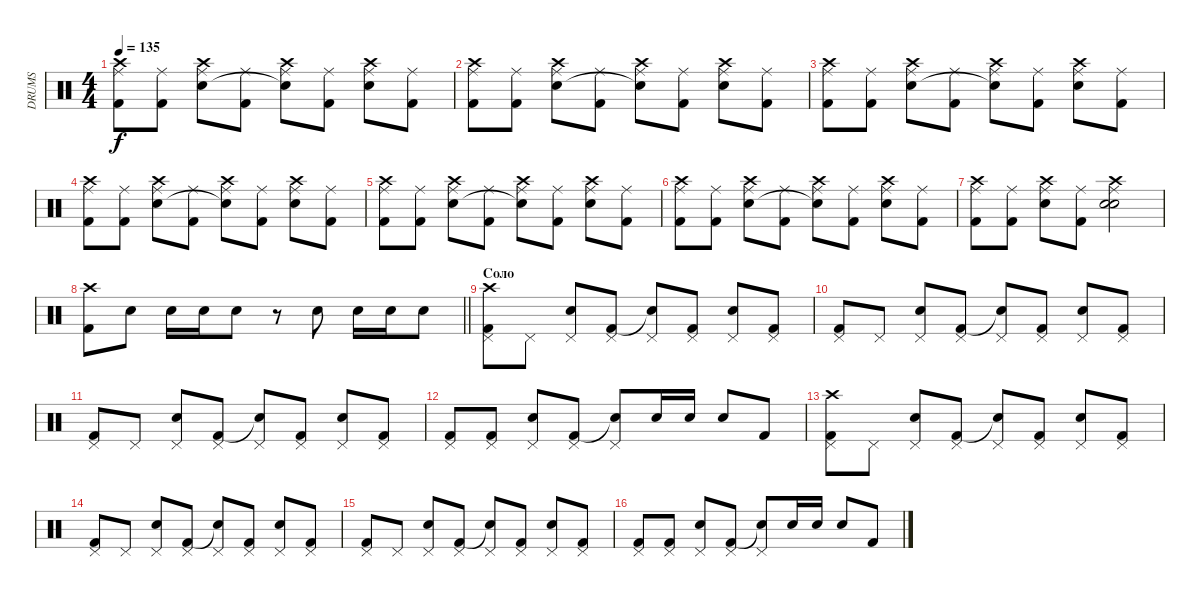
\track ("DRUMS" "DRUMS") {instrument percussion}
\staff {score}
\articulation defaults
\ts (4 4)
\tempo 135
\clef neutral
\ks c
("Crash high (hit)" "Ride (middle)" "Kick (hit) 2").8{dy f} ("Ride (middle)" "Kick (hit) 2").8 ("Crash high (hit)" "Ride (middle)" "Snare (hit) 2").8 ("Ride (middle)" "Kick (hit) 2").8 ("Crash high (hit)" "Ride (middle)" "Snare (hit)"{t}).8 ("Ride (middle)" "Kick (hit) 2").8 ("Crash high (hit)" "Ride (middle)" "Snare (hit) 2").8 ("Ride (middle)" "Kick (hit) 2").8 |
("Crash high (hit)" "Ride (middle)" "Kick (hit) 2").8 ("Ride (middle)" "Kick (hit) 2").8 ("Crash high (hit)" "Ride (middle)" "Snare (hit) 2").8 ("Ride (middle)" "Kick (hit) 2").8 ("Crash high (hit)" "Ride (middle)" "Snare (hit)"{t}).8 ("Ride (middle)" "Kick (hit) 2").8 ("Crash high (hit)" "Ride (middle)" "Snare (hit) 2").8 ("Ride (middle)" "Kick (hit) 2").8 |
("Crash high (hit)" "Ride (middle)" "Kick (hit) 2").8 ("Ride (middle)" "Kick (hit) 2").8 ("Crash high (hit)" "Ride (middle)" "Snare (hit) 2").8 ("Ride (middle)" "Kick (hit) 2").8 ("Crash high (hit)" "Ride (middle)" "Snare (hit)"{t}).8 ("Ride (middle)" "Kick (hit) 2").8 ("Crash high (hit)" "Ride (middle)" "Snare (hit) 2").8 ("Ride (middle)" "Kick (hit) 2").8 |
("Crash high (hit)" "Ride (middle)" "Kick (hit) 2").8 ("Ride (middle)" "Kick (hit) 2").8 ("Crash high (hit)" "Ride (middle)" "Snare (hit) 2").8 ("Ride (middle)" "Kick (hit) 2").8 ("Crash high (hit)" "Ride (middle)" "Snare (hit)"{t}).8 ("Ride (middle)" "Kick (hit) 2").8 ("Crash high (hit)" "Ride (middle)" "Snare (hit) 2").8 ("Ride (middle)" "Kick (hit) 2").8 |
("Crash high (hit)" "Ride (middle)" "Kick (hit) 2").8 ("Ride (middle)" "Kick (hit) 2").8 ("Crash high (hit)" "Ride (middle)" "Snare (hit) 2").8 ("Ride (middle)" "Kick (hit) 2").8 ("Crash high (hit)" "Ride (middle)" "Snare (hit)"{t}).8 ("Ride (middle)" "Kick (hit) 2").8 ("Crash high (hit)" "Ride (middle)" "Snare (hit) 2").8 ("Ride (middle)" "Kick (hit) 2").8 |
("Crash high (hit)" "Ride (middle)" "Kick (hit) 2").8 ("Ride (middle)" "Kick (hit) 2").8 ("Crash high (hit)" "Ride (middle)" "Snare (hit) 2").8 ("Ride (middle)" "Kick (hit) 2").8 ("Crash high (hit)" "Ride (middle)" "Snare (hit)"{t}).8 ("Ride (middle)" "Kick (hit) 2").8 ("Crash high (hit)" "Ride (middle)" "Snare (hit) 2").8 ("Ride (middle)" "Kick (hit) 2").8 |
("Crash high (hit)" "Ride (middle)" "Kick (hit) 2").8 ("Ride (middle)" "Kick (hit) 2").8 ("Crash high (hit)" "Ride (middle)" "Snare (hit) 2").8 ("Ride (middle)" "Kick (hit) 2").8 ("Crash high (hit)" "Ride (middle)" "Snare (hit) 2" "Snare (hit)").2 |
\barLineRight lightlight
("Crash high (hit)" "Kick (hit) 2").8 "Snare (hit) 2".8 "Snare (hit) 2".16 "Snare (hit) 2".16 "Snare (hit) 2".8 r.8 "Snare (hit) 2".8 "Snare (hit) 2".16 "Snare (hit) 2".16 "Snare (hit) 2".8 |
\section ("" "Соло")
("Crash high (hit)" "Pedal Hi-Hat (hit)" "Kick (hit) 2").8 "Pedal Hi-Hat (hit)".8 ("Pedal Hi-Hat (hit)" "Snare (hit) 2").8 ("Pedal Hi-Hat (hit)" "Kick (hit) 2").8 ("Pedal Hi-Hat (hit)" "Snare (hit)"{t}).8 ("Pedal Hi-Hat (hit)" "Kick (hit) 2").8 ("Pedal Hi-Hat (hit)" "Snare (hit) 2").8 ("Pedal Hi-Hat (hit)" "Kick (hit) 2").8 |
("Pedal Hi-Hat (hit)" "Kick (hit) 2").8 "Pedal Hi-Hat (hit)".8 ("Pedal Hi-Hat (hit)" "Snare (hit) 2").8 ("Pedal Hi-Hat (hit)" "Kick (hit) 2").8 ("Pedal Hi-Hat (hit)" "Snare (hit)"{t}).8 ("Pedal Hi-Hat (hit)" "Kick (hit) 2").8 ("Pedal Hi-Hat (hit)" "Snare (hit) 2").8 ("Pedal Hi-Hat (hit)" "Kick (hit) 2").8 |
("Pedal Hi-Hat (hit)" "Kick (hit) 2").8 "Pedal Hi-Hat (hit)".8 ("Pedal Hi-Hat (hit)" "Snare (hit) 2").8 ("Pedal Hi-Hat (hit)" "Kick (hit) 2").8 ("Pedal Hi-Hat (hit)" "Snare (hit)"{t}).8 ("Pedal Hi-Hat (hit)" "Kick (hit) 2").8 ("Pedal Hi-Hat (hit)" "Snare (hit) 2").8 ("Pedal Hi-Hat (hit)" "Kick (hit) 2").8 |
("Pedal Hi-Hat (hit)" "Kick (hit) 2").8 ("Pedal Hi-Hat (hit)" "Kick (hit) 2").8 ("Pedal Hi-Hat (hit)" "Snare (hit) 2").8 ("Pedal Hi-Hat (hit)" "Kick (hit) 2").8 ("Pedal Hi-Hat (hit)" "Snare (hit)"{t}).8 "Snare (hit) 2".16 "Snare (hit) 2".16 "Snare (hit) 2".8 "Kick (hit) 2".8 |
("Crash high (hit)" "Pedal Hi-Hat (hit)" "Kick (hit) 2").8 "Pedal Hi-Hat (hit)".8 ("Pedal Hi-Hat (hit)" "Snare (hit) 2").8 ("Pedal Hi-Hat (hit)" "Kick (hit) 2").8 ("Pedal Hi-Hat (hit)" "Snare (hit)"{t}).8 ("Pedal Hi-Hat (hit)" "Kick (hit) 2").8 ("Pedal Hi-Hat (hit)" "Snare (hit) 2").8 ("Pedal Hi-Hat (hit)" "Kick (hit) 2").8 |
("Pedal Hi-Hat (hit)" "Kick (hit) 2").8 "Pedal Hi-Hat (hit)".8 ("Pedal Hi-Hat (hit)" "Snare (hit) 2").8 ("Pedal Hi-Hat (hit)" "Kick (hit) 2").8 ("Pedal Hi-Hat (hit)" "Snare (hit)"{t}).8 ("Pedal Hi-Hat (hit)" "Kick (hit) 2").8 ("Pedal Hi-Hat (hit)" "Snare (hit) 2").8 ("Pedal Hi-Hat (hit)" "Kick (hit) 2").8 |
("Pedal Hi-Hat (hit)" "Kick (hit) 2").8 "Pedal Hi-Hat (hit)".8 ("Pedal Hi-Hat (hit)" "Snare (hit) 2").8 ("Pedal Hi-Hat (hit)" "Kick (hit) 2").8 ("Pedal Hi-Hat (hit)" "Snare (hit)"{t}).8 ("Pedal Hi-Hat (hit)" "Kick (hit) 2").8 ("Pedal Hi-Hat (hit)" "Snare (hit) 2").8 ("Pedal Hi-Hat (hit)" "Kick (hit) 2").8 |
("Pedal Hi-Hat (hit)" "Kick (hit) 2").8 ("Pedal Hi-Hat (hit)" "Kick (hit) 2").8 ("Pedal Hi-Hat (hit)" "Snare (hit) 2").8 ("Pedal Hi-Hat (hit)" "Kick (hit) 2").8 ("Pedal Hi-Hat (hit)" "Snare (hit)"{t}).8 "Snare (hit) 2".16 "Snare (hit) 2".16 "Snare (hit) 2".8 "Kick (hit) 2".8
